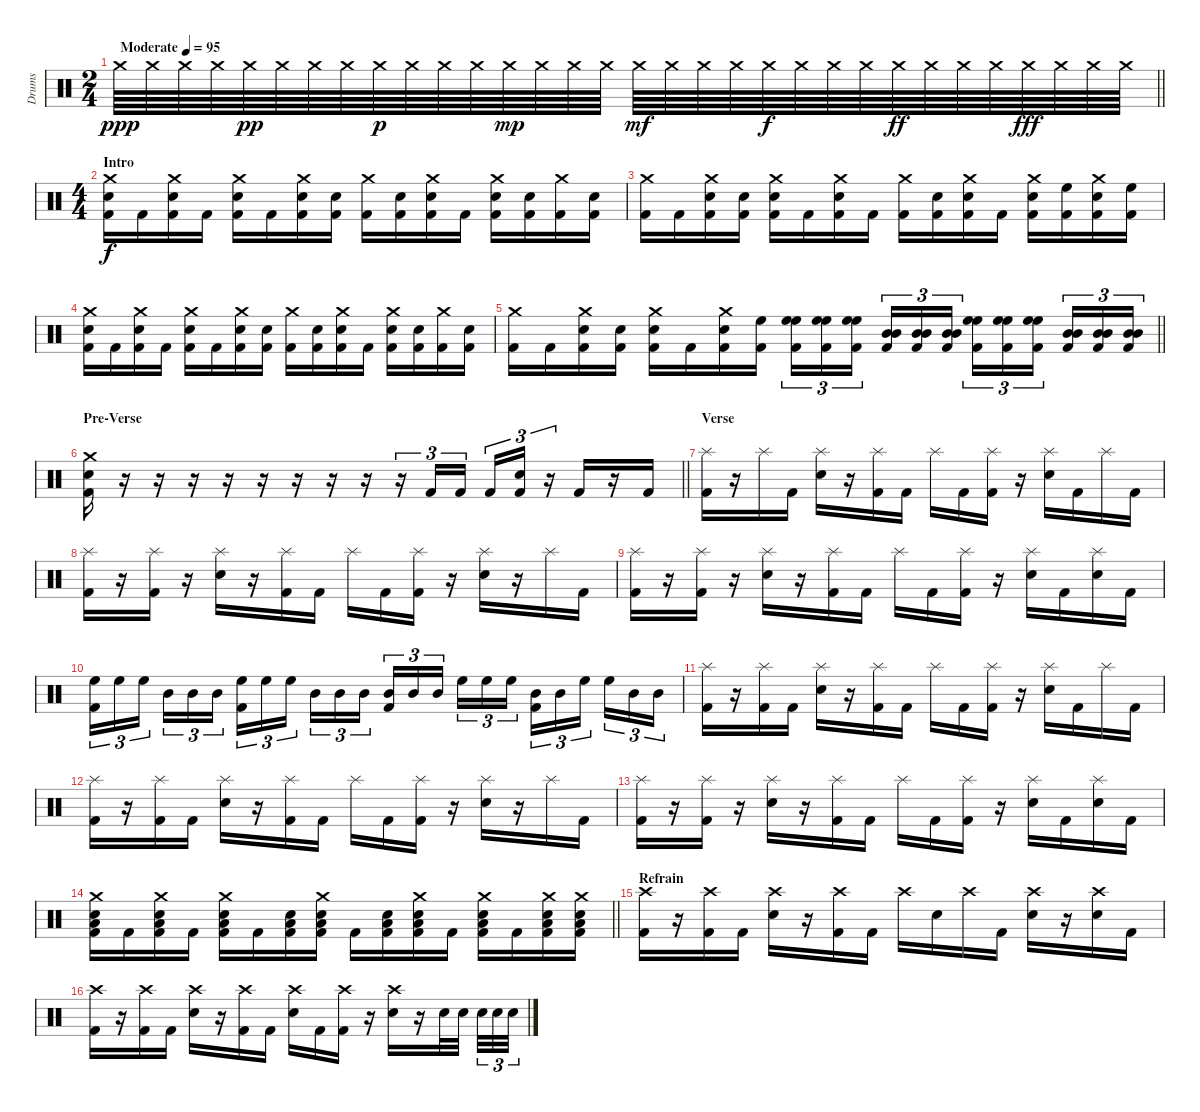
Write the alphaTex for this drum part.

\track ("Drums" "Drums") {instrument percussion}
\staff {score}
\articulation defaults
\ts (2 4)
\tempo (95 "Moderate")
\clef neutral
\barLineRight lightlight
\ks c "Crash medium (hit)".64{dy ppp} "Crash medium (hit)".64 "Crash medium (hit)".64 "Crash medium (hit)".64 "Crash medium (hit)".64{dy pp} "Crash medium (hit)".64 "Crash medium (hit)".64 "Crash medium (hit)".64 "Crash medium (hit)".64{dy p} "Crash medium (hit)".64 "Crash medium (hit)".64 "Crash medium (hit)".64 "Crash medium (hit)".64{dy mp} "Crash medium (hit)".64 "Crash medium (hit)".64 "Crash medium (hit)".64 "Crash medium (hit)".64{dy mf} "Crash medium (hit)".64 "Crash medium (hit)".64 "Crash medium (hit)".64 "Crash medium (hit)".64{dy f} "Crash medium (hit)".64 "Crash medium (hit)".64 "Crash medium (hit)".64 "Crash medium (hit)".64{dy ff} "Crash medium (hit)".64 "Crash medium (hit)".64 "Crash medium (hit)".64 "Crash medium (hit)".64{dy fff} "Crash medium (hit)".64 "Crash medium (hit)".64 "Crash medium (hit)".64
|
\ts (4 4)
\section ("" "Intro")
("Crash medium (hit)" "Electric Snare (hit)" "Kick (hit) 2").16{dy f} "Kick (hit) 2".16 ("Crash medium (hit)" "Electric Snare (hit)" "Kick (hit) 2").16 "Kick (hit) 2".16 ("Crash medium (hit)" "Electric Snare (hit)" "Kick (hit) 2").16 "Kick (hit) 2".16 ("Crash medium (hit)" "Electric Snare (hit)" "Kick (hit) 2").16 ("Electric Snare (hit)" "Kick (hit) 2").16 ("Crash medium (hit)" "Kick (hit) 2").16 ("Electric Snare (hit)" "Kick (hit) 2").16 ("Crash medium (hit)" "Electric Snare (hit)" "Kick (hit) 2").16 "Kick (hit) 2".16 ("Crash medium (hit)" "Electric Snare (hit)" "Kick (hit) 2").16 ("Electric Snare (hit)" "Kick (hit) 2").16 ("Crash medium (hit)" "Kick (hit) 2").16 ("Electric Snare (hit)" "Kick (hit) 2").16 |
("Crash medium (hit)" "Kick (hit) 2").16 "Kick (hit) 2".16 ("Crash medium (hit)" "Electric Snare (hit)" "Kick (hit) 2").16 ("Electric Snare (hit)" "Kick (hit) 2").16 ("Crash medium (hit)" "Electric Snare (hit)" "Kick (hit) 2").16 "Kick (hit) 2".16 ("Crash medium (hit)" "Electric Snare (hit)" "Kick (hit) 2").16 "Kick (hit) 2".16 ("Crash medium (hit)" "Kick (hit) 2").16 ("Electric Snare (hit)" "Kick (hit) 2").16 ("Crash medium (hit)" "Electric Snare (hit)" "Kick (hit) 2").16 "Kick (hit) 2".16 ("Crash medium (hit)" "Electric Snare (hit)" "Kick (hit) 2").16 ("High Floor Tom (hit)" "Kick (hit) 2").16 ("Crash medium (hit)" "Electric Snare (hit)" "Kick (hit) 2").16 ("High Floor Tom (hit)" "Kick (hit) 2").16 |
("Crash medium (hit)" "Electric Snare (hit)" "Kick (hit) 2").16 "Kick (hit) 2".16 ("Crash medium (hit)" "Electric Snare (hit)" "Kick (hit) 2").16 "Kick (hit) 2".16 ("Crash medium (hit)" "Electric Snare (hit)" "Kick (hit) 2").16 "Kick (hit) 2".16 ("Crash medium (hit)" "Electric Snare (hit)" "Kick (hit) 2").16 ("Electric Snare (hit)" "Kick (hit) 2").16 ("Crash medium (hit)" "Kick (hit) 2").16 ("Electric Snare (hit)" "Kick (hit) 2").16 ("Crash medium (hit)" "Electric Snare (hit)" "Kick (hit) 2").16 "Kick (hit) 2".16 ("Crash medium (hit)" "Electric Snare (hit)" "Kick (hit) 2").16 ("Electric Snare (hit)" "Kick (hit) 2").16 ("Crash medium (hit)" "Kick (hit) 2").16 ("Electric Snare (hit)" "Kick (hit) 2").16 |
\barLineRight lightlight
("Crash medium (hit)" "Kick (hit) 2").16 "Kick (hit) 2".16 ("Crash medium (hit)" "Electric Snare (hit)" "Kick (hit) 2").16 ("Electric Snare (hit)" "Kick (hit) 2").16 ("Crash medium (hit)" "Electric Snare (hit)" "Kick (hit) 2").16 "Kick (hit) 2".16 ("Crash medium (hit)" "Electric Snare (hit)" "Kick (hit) 2").16 ("High Floor Tom (hit)" "Kick (hit) 2").16 ("High Floor Tom (hit)" "High Floor Tom (hit)" "Kick (hit) 2").16{tu (3 2)} ("High Floor Tom (hit)" "High Floor Tom (hit)" "Kick (hit) 2").16{tu (3 2)} ("High Floor Tom (hit)" "High Floor Tom (hit)" "Kick (hit) 2").16{tu (3 2) beam splitsecondary} ("Mid Tom (hit)" "Mid Tom (hit)" "Kick (hit) 2").16{tu (3 2)} ("Mid Tom (hit)" "Mid Tom (hit)" "Kick (hit) 2").16{tu (3 2)} ("Mid Tom (hit)" "Mid Tom (hit)" "Kick (hit) 2").16{tu (3 2)} ("High Floor Tom (hit)" "High Floor Tom (hit)" "Kick (hit) 2").16{tu (3 2)} ("High Floor Tom (hit)" "High Floor Tom (hit)" "Kick (hit) 2").16{tu (3 2)} ("High Floor Tom (hit)" "High Floor Tom (hit)" "Kick (hit) 2").16{tu (3 2) beam splitsecondary} ("Mid Tom (hit)" "Mid Tom (hit)" "Kick (hit) 2").16{tu (3 2)} ("Mid Tom (hit)" "Mid Tom (hit)" "Kick (hit) 2").16{tu (3 2)} ("Mid Tom (hit)" "Mid Tom (hit)" "Kick (hit) 2").16{tu (3 2)} |
\section ("" "Pre-Verse")
\barLineRight lightlight
("Crash medium (hit)" "Electric Snare (hit)" "Kick (hit) 2").16 r.16 r.16 r.16 r.16 r.16 r.16 r.16 r.16 r.16{tu (3 2)} "Kick (hit) 2".16{tu (3 2)} "Kick (hit) 2".16{tu (3 2) beam splitsecondary} "Kick (hit) 2".16{tu (3 2)} ("Electric Snare (hit)" "Kick (hit) 2").16{tu (3 2)} r.16{tu (3 2)} "Kick (hit) 2".16 r.16 "Kick (hit) 2".16 |
\section ("" "Verse")
("Splash (hit)" "Kick (hit) 2").16 r.16 "Splash (hit)".16 "Kick (hit) 2".16 ("Splash (hit)" "Electric Snare (hit)").16 r.16 ("Splash (hit)" "Kick (hit) 2").16 "Kick (hit) 2".16 "Splash (hit)".16 "Kick (hit) 2".16 ("Splash (hit)" "Kick (hit) 2").16 r.16 ("Splash (hit)" "Electric Snare (hit)").16 "Kick (hit) 2".16 "Splash (hit)".16 "Kick (hit) 2".16 |
("Splash (hit)" "Kick (hit) 2").16 r.16 ("Splash (hit)" "Kick (hit) 2").16 r.16 ("Splash (hit)" "Electric Snare (hit)").16 r.16 ("Splash (hit)" "Kick (hit) 2").16 "Kick (hit) 2".16 "Splash (hit)".16 "Kick (hit) 2".16 ("Splash (hit)" "Kick (hit) 2").16 r.16 ("Splash (hit)" "Electric Snare (hit)").16 r.16 "Splash (hit)".16 "Kick (hit) 2".16 |
("Splash (hit)" "Kick (hit) 2").16 r.16 ("Splash (hit)" "Kick (hit) 2").16 r.16 ("Splash (hit)" "Electric Snare (hit)").16 r.16 ("Splash (hit)" "Kick (hit) 2").16 "Kick (hit) 2".16 "Splash (hit)".16 "Kick (hit) 2".16 ("Splash (hit)" "Kick (hit) 2").16 r.16 ("Splash (hit)" "Electric Snare (hit)").16 "Kick (hit) 2".16 ("Splash (hit)" "Electric Snare (hit)").16 "Kick (hit) 2".16 |
("High Floor Tom (hit)" "Kick (hit) 2").16{tu (3 2)} "High Floor Tom (hit)".16{tu (3 2)} "High Floor Tom (hit)".16{tu (3 2) beam splitsecondary} "Mid Tom (hit)".16{tu (3 2)} "Mid Tom (hit)".16{tu (3 2)} "Mid Tom (hit)".16{tu (3 2)} ("High Floor Tom (hit)" "Kick (hit) 2").16{tu (3 2)} "High Floor Tom (hit)".16{tu (3 2)} "High Floor Tom (hit)".16{tu (3 2) beam splitsecondary} "Mid Tom (hit)".16{tu (3 2)} "Mid Tom (hit)".16{tu (3 2)} "Mid Tom (hit)".16{tu (3 2)} ("Mid Tom (hit)" "Kick (hit) 2").16{tu (3 2)} "Mid Tom (hit)".16{tu (3 2)} "Mid Tom (hit)".16{tu (3 2) beam splitsecondary} "High Floor Tom (hit)".16{tu (3 2)} "High Floor Tom (hit)".16{tu (3 2)} "High Floor Tom (hit)".16{tu (3 2)} ("Mid Tom (hit)" "Kick (hit) 2").16{tu (3 2)} "Mid Tom (hit)".16{tu (3 2)} "High Floor Tom (hit)".16{tu (3 2) beam splitsecondary} "High Floor Tom (hit)".16{tu (3 2)} "Mid Tom (hit)".16{tu (3 2)} "Mid Tom (hit)".16{tu (3 2)} |
("Splash (hit)" "Kick (hit) 2").16 r.16 ("Splash (hit)" "Kick (hit) 2").16 "Kick (hit) 2".16 ("Splash (hit)" "Electric Snare (hit)").16 r.16 ("Splash (hit)" "Kick (hit) 2").16 "Kick (hit) 2".16 "Splash (hit)".16 "Kick (hit) 2".16 ("Splash (hit)" "Kick (hit) 2").16 r.16 ("Splash (hit)" "Electric Snare (hit)").16 "Kick (hit) 2".16 "Splash (hit)".16 "Kick (hit) 2".16 |
("Splash (hit)" "Kick (hit) 2").16 r.16 ("Splash (hit)" "Kick (hit) 2").16 "Kick (hit) 2".16 ("Splash (hit)" "Electric Snare (hit)").16 r.16 ("Splash (hit)" "Kick (hit) 2").16 "Kick (hit) 2".16 "Splash (hit)".16 "Kick (hit) 2".16 ("Splash (hit)" "Kick (hit) 2").16 r.16 ("Splash (hit)" "Electric Snare (hit)").16 r.16 "Splash (hit)".16 "Kick (hit) 2".16 |
("Splash (hit)" "Kick (hit) 2").16 r.16 ("Splash (hit)" "Kick (hit) 2").16 r.16 ("Splash (hit)" "Electric Snare (hit)").16 r.16 ("Splash (hit)" "Kick (hit) 2").16 "Kick (hit) 2".16 "Splash (hit)".16 "Kick (hit) 2".16 ("Splash (hit)" "Kick (hit) 2").16 r.16 ("Splash (hit)" "Electric Snare (hit)").16 "Kick (hit) 2".16 ("Splash (hit)" "Electric Snare (hit)").16 "Kick (hit) 2".16 |
\barLineRight lightlight
("Crash medium (hit)" "Electric Snare (hit)" "Low Floor Tom (hit)" "Kick (hit) 2").16 "Kick (hit) 2".16 ("Crash medium (hit)" "Electric Snare (hit)" "Low Floor Tom (hit)" "Kick (hit) 2").16 "Kick (hit) 2".16 ("Crash medium (hit)" "Electric Snare (hit)" "Low Floor Tom (hit)" "Kick (hit) 2").16 "Kick (hit) 2".16 ("Electric Snare (hit)" "Low Floor Tom (hit)" "Kick (hit) 2").16 ("Crash medium (hit)" "Electric Snare (hit)" "Low Floor Tom (hit)" "Kick (hit) 2").16 "Kick (hit) 2".16 ("Electric Snare (hit)" "Low Floor Tom (hit)" "Kick (hit) 2").16 ("Crash medium (hit)" "Electric Snare (hit)" "Low Floor Tom (hit)" "Kick (hit) 2").16 "Kick (hit) 2".16 ("Crash medium (hit)" "Electric Snare (hit)" "Low Floor Tom (hit)" "Kick (hit) 2").16 "Kick (hit) 2".16 ("Crash medium (hit)" "Electric Snare (hit)" "Low Floor Tom (hit)" "Kick (hit) 2").16 ("Crash medium (hit)" "Electric Snare (hit)" "Low Floor Tom (hit)" "Kick (hit) 2").16 |
\section ("" "Refrain")
("Crash high (hit)" "Kick (hit) 2").16 r.16 ("Crash high (hit)" "Kick (hit) 2").16 "Kick (hit) 2".16 ("Crash high (hit)" "Electric Snare (hit)").16 r.16 ("Crash high (hit)" "Kick (hit) 2").16 "Kick (hit) 2".16 "Crash high (hit)".16 "Electric Snare (hit)".16 "Crash high (hit)".16 "Kick (hit) 2".16 ("Crash high (hit)" "Electric Snare (hit)").16 r.16 ("Crash high (hit)" "Electric Snare (hit)").16 "Kick (hit) 2".16 |
("Crash high (hit)" "Kick (hit) 2").16 r.16 ("Crash high (hit)" "Kick (hit) 2").16 "Kick (hit) 2".16 ("Crash high (hit)" "Electric Snare (hit)").16 r.16 ("Crash high (hit)" "Kick (hit) 2").16 "Kick (hit) 2".16 ("Crash high (hit)" "Electric Snare (hit)").16 "Kick (hit) 2".16 ("Crash high (hit)" "Kick (hit) 2").16 r.16 ("Crash high (hit)" "Electric Snare (hit)").16 r.16 "Snare (hit) 2".32 "Snare (hit) 2".32{beam splitsecondary} "Snare (hit) 2".32{tu (3 2)} "Electric Snare (hit)".32{tu (3 2)} "Electric Snare (hit)".32{tu (3 2)}
